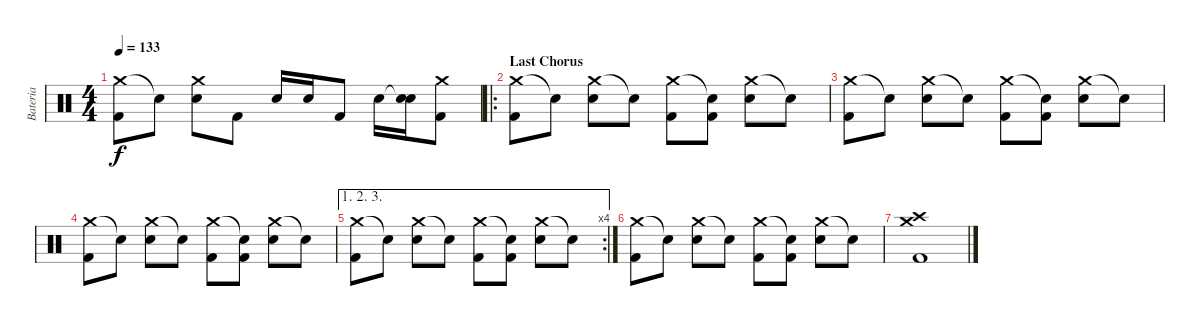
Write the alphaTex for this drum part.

\track ("Bateria" "Bateria") {instrument percussion}
\staff {score}
\articulation defaults
\ts (4 4)
\tempo 133
\clef neutral
\ks c
("Crash medium (hit)" "Kick (hit) 2").8{dy f} "Snare (hit)"{t}.8 ("Crash medium (hit)" "Electric Snare (hit)").8 "Kick (hit) 2".8 "Electric Snare (hit)".16 "Electric Snare (hit)".16 "Kick (hit) 2".8 "Electric Snare (hit)".16 ("Snare (hit)"{t} "Electric Snare (hit)").16 ("Crash medium (hit)" "Kick (hit) 2").8 |
\ro
\section ("" "Last Chorus")
("Crash medium (hit)" "Kick (hit) 2").8 "Snare (hit)"{t}.8 ("Crash medium (hit)" "Electric Snare (hit)").8 "Snare (hit)"{t}.8 ("Crash medium (hit)" "Kick (hit) 2").8 ("Snare (hit)"{t} "Kick (hit) 2").8 ("Crash medium (hit)" "Electric Snare (hit)").8 "Snare (hit)"{t}.8 |
("Crash medium (hit)" "Kick (hit) 2").8 "Snare (hit)"{t}.8 ("Crash medium (hit)" "Electric Snare (hit)").8 "Snare (hit)"{t}.8 ("Crash medium (hit)" "Kick (hit) 2").8 ("Snare (hit)"{t} "Kick (hit) 2").8 ("Crash medium (hit)" "Electric Snare (hit)").8 "Snare (hit)"{t}.8 |
("Crash medium (hit)" "Kick (hit) 2").8 "Snare (hit)"{t}.8 ("Crash medium (hit)" "Electric Snare (hit)").8 "Snare (hit)"{t}.8 ("Crash medium (hit)" "Kick (hit) 2").8 ("Snare (hit)"{t} "Kick (hit) 2").8 ("Crash medium (hit)" "Electric Snare (hit)").8 "Snare (hit)"{t}.8 |
\ae (1 2 3)
\rc 4
("Crash medium (hit)" "Kick (hit) 2").8 "Snare (hit)"{t}.8 ("Crash medium (hit)" "Electric Snare (hit)").8 "Snare (hit)"{t}.8 ("Crash medium (hit)" "Kick (hit) 2").8 ("Snare (hit)"{t} "Kick (hit) 2").8 ("Crash medium (hit)" "Electric Snare (hit)").8 "Snare (hit)"{t}.8 |
("Crash medium (hit)" "Kick (hit) 2").8 "Snare (hit)"{t}.8 ("Crash medium (hit)" "Electric Snare (hit)").8 "Snare (hit)"{t}.8 ("Crash medium (hit)" "Kick (hit) 2").8 ("Snare (hit)"{t} "Kick (hit) 2").8 ("Crash medium (hit)" "Electric Snare (hit)").8 "Snare (hit)"{t}.8 |
("Crash medium (hit)" "Crash high (hit)" "Kick (hit) 2").1
